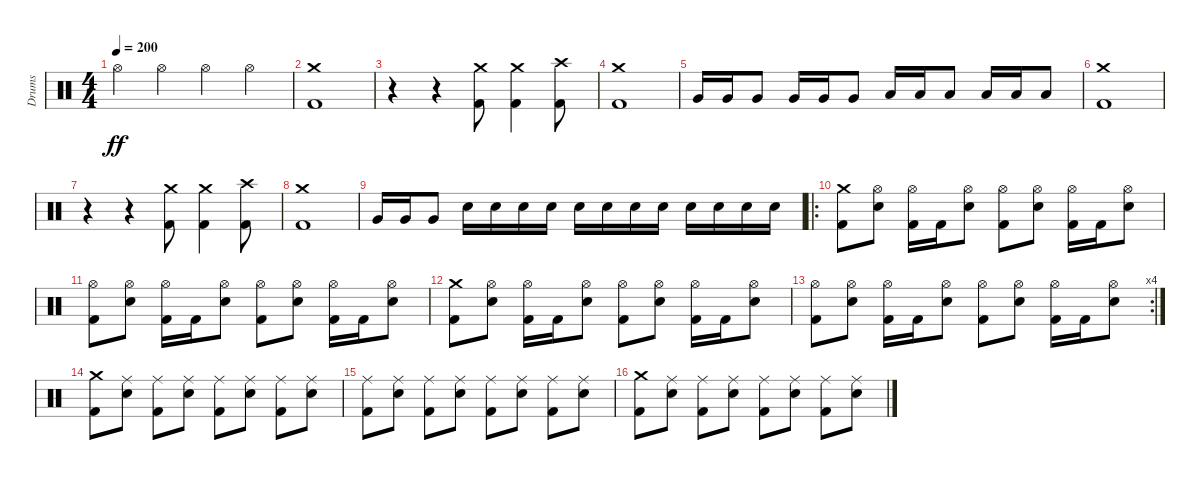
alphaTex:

\track ("Drums" "Drums") {instrument percussion}
\staff {score}
\articulation defaults
\ts (4 4)
\tempo 200
\clef neutral
\ks c "Hi-Hat (open)".4{dy ff} "Hi-Hat (open)".4 "Hi-Hat (open)".4 "Hi-Hat (open)".4
|
("Crash medium (hit)" "Kick (hit) 2").1 |
r.4 r.4 ("Crash medium (hit)" "Kick (hit) 2").8 ("Crash medium (hit)" "Kick (hit) 2").4 ("Crash high (hit)" "Kick (hit) 2").8 |
("Crash medium (hit)" "Kick (hit) 2").1 |
"Very Low Tom (hit)".16 "Very Low Tom (hit)".16 "Very Low Tom (hit)".8 "Very Low Tom (hit)".16 "Very Low Tom (hit)".16 "Very Low Tom (hit)".8 "Low Floor Tom (hit)".16 "Low Floor Tom (hit)".16 "Low Floor Tom (hit)".8 "Low Floor Tom (hit)".16 "Low Floor Tom (hit)".16 "Low Floor Tom (hit)".8 |
("Crash medium (hit)" "Kick (hit) 2").1 |
r.4 r.4 ("Crash medium (hit)" "Kick (hit) 2").8 ("Crash medium (hit)" "Kick (hit) 2").4 ("Crash high (hit)" "Kick (hit) 2").8 |
("Crash medium (hit)" "Kick (hit) 2").1 |
"Very Low Tom (hit)".16 "Very Low Tom (hit)".16 "Very Low Tom (hit)".8 "Snare (hit) 2".16 "Snare (hit) 2".16 "Snare (hit) 2".16 "Snare (hit) 2".16 "Snare (hit) 2".16 "Snare (hit) 2".16 "Snare (hit) 2".16 "Snare (hit) 2".16 "Snare (hit) 2".16 "Snare (hit) 2".16 "Snare (hit) 2".16 "Snare (hit) 2".16 |
\ro
("Crash medium (hit)" "Kick (hit) 2").8 ("Hi-Hat (open)" "Snare (hit) 2").8 ("Hi-Hat (open)" "Kick (hit) 2").16 "Kick (hit) 2".16 ("Hi-Hat (open)" "Snare (hit) 2").8 ("Hi-Hat (open)" "Kick (hit) 2").8 ("Hi-Hat (open)" "Snare (hit) 2").8 ("Hi-Hat (open)" "Kick (hit) 2").16 "Kick (hit) 2".16 ("Hi-Hat (open)" "Snare (hit) 2").8 |
("Hi-Hat (open)" "Kick (hit) 2").8 ("Hi-Hat (open)" "Snare (hit) 2").8 ("Hi-Hat (open)" "Kick (hit) 2").16 "Kick (hit) 2".16 ("Hi-Hat (open)" "Snare (hit) 2").8 ("Hi-Hat (open)" "Kick (hit) 2").8 ("Hi-Hat (open)" "Snare (hit) 2").8 ("Hi-Hat (open)" "Kick (hit) 2").16 "Kick (hit) 2".16 ("Hi-Hat (open)" "Snare (hit) 2").8 |
("Crash medium (hit)" "Kick (hit) 2").8 ("Hi-Hat (open)" "Snare (hit) 2").8 ("Hi-Hat (open)" "Kick (hit) 2").16 "Kick (hit) 2".16 ("Hi-Hat (open)" "Snare (hit) 2").8 ("Hi-Hat (open)" "Kick (hit) 2").8 ("Hi-Hat (open)" "Snare (hit) 2").8 ("Hi-Hat (open)" "Kick (hit) 2").16 "Kick (hit) 2".16 ("Hi-Hat (open)" "Snare (hit) 2").8 |
\rc 4
("Hi-Hat (open)" "Kick (hit) 2").8 ("Hi-Hat (open)" "Snare (hit) 2").8 ("Hi-Hat (open)" "Kick (hit) 2").16 "Kick (hit) 2".16 ("Hi-Hat (open)" "Snare (hit) 2").8 ("Hi-Hat (open)" "Kick (hit) 2").8 ("Hi-Hat (open)" "Snare (hit) 2").8 ("Hi-Hat (open)" "Kick (hit) 2").16 "Kick (hit) 2".16 ("Hi-Hat (open)" "Snare (hit) 2").8 |
("Crash medium (hit)" "Kick (hit) 2").8 ("Ride (middle)" "Snare (hit) 2").8 ("Ride (middle)" "Kick (hit) 2").8 ("Ride (middle)" "Snare (hit) 2").8 ("Ride (middle)" "Kick (hit) 2").8 ("Ride (middle)" "Snare (hit) 2").8 ("Ride (middle)" "Kick (hit) 2").8 ("Ride (middle)" "Snare (hit) 2").8 |
("Ride (middle)" "Kick (hit) 2").8 ("Ride (middle)" "Snare (hit) 2").8 ("Ride (middle)" "Kick (hit) 2").8 ("Ride (middle)" "Snare (hit) 2").8 ("Ride (middle)" "Kick (hit) 2").8 ("Ride (middle)" "Snare (hit) 2").8 ("Ride (middle)" "Kick (hit) 2").8 ("Ride (middle)" "Snare (hit) 2").8 |
("Crash medium (hit)" "Kick (hit) 2").8 ("Ride (middle)" "Snare (hit) 2").8 ("Ride (middle)" "Kick (hit) 2").8 ("Ride (middle)" "Snare (hit) 2").8 ("Ride (middle)" "Kick (hit) 2").8 ("Ride (middle)" "Snare (hit) 2").8 ("Ride (middle)" "Kick (hit) 2").8 ("Ride (middle)" "Snare (hit) 2").8
